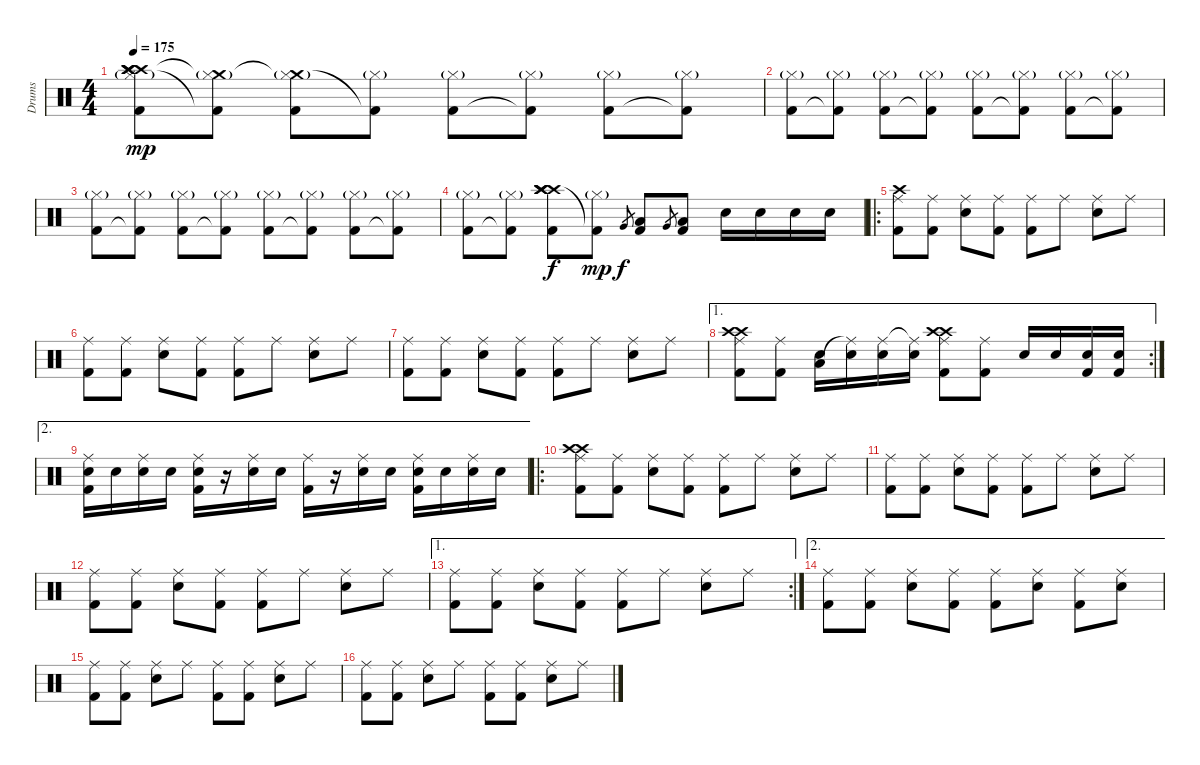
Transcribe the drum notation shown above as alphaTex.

\track ("Drums" "Drums") {instrument percussion}
\staff {score}
\articulation defaults
\ts (4 4)
\tempo 175
\clef neutral
\ks c
("Crash high (hit)" "Crash high (hit)" "Hi-Hat (closed)"{g} "Crash high (hit)" "Crash high (hit)" "Kick (hit) 2").8{dy mp} ("Crash medium (hit)"{t} "Hi-Hat (closed)"{g} "Kick (hit) 2"{t}).8 ("Crash medium (hit)"{t} "Hi-Hat (closed)"{g} "Kick (hit) 2").8 ("Hi-Hat (closed)"{g} "Kick (hit) 2"{t}).8 ("Hi-Hat (closed)"{g} "Kick (hit) 2").8 ("Hi-Hat (closed)"{g} "Kick (hit) 2"{t}).8 ("Hi-Hat (closed)"{g} "Kick (hit) 2").8 ("Hi-Hat (closed)"{g} "Kick (hit) 2"{t}).8 |
("Hi-Hat (closed)"{g} "Kick (hit) 2").8 ("Hi-Hat (closed)"{g} "Kick (hit) 2"{t}).8 ("Hi-Hat (closed)"{g} "Kick (hit) 2").8 ("Hi-Hat (closed)"{g} "Kick (hit) 2"{t}).8 ("Hi-Hat (closed)"{g} "Kick (hit) 2").8 ("Hi-Hat (closed)"{g} "Kick (hit) 2"{t}).8 ("Hi-Hat (closed)"{g} "Kick (hit) 2").8 ("Hi-Hat (closed)"{g} "Kick (hit) 2"{t}).8 |
("Hi-Hat (closed)"{g} "Kick (hit) 2").8 ("Hi-Hat (closed)"{g} "Kick (hit) 2"{t}).8 ("Hi-Hat (closed)"{g} "Kick (hit) 2").8 ("Hi-Hat (closed)"{g} "Kick (hit) 2"{t}).8 ("Hi-Hat (closed)"{g} "Kick (hit) 2").8 ("Hi-Hat (closed)"{g} "Kick (hit) 2"{t}).8 ("Hi-Hat (closed)"{g} "Kick (hit) 2").8 ("Hi-Hat (closed)"{g} "Kick (hit) 2"{t}).8 |
("Hi-Hat (closed)"{g} "Kick (hit) 2").8 ("Hi-Hat (closed)"{g} "Kick (hit) 2"{t}).8 ("Crash high (hit)" "Crash high (hit)" "Crash high (hit)" "Crash high (hit)" "Kick (hit) 2").8{dy f} ("Hi-Hat (closed)"{g} "Kick (hit) 2"{t}).8{dy mp} "Very Low Tom (hit)".8{gr dy f} ("Low Tom (hit)" "Kick (hit) 2").8 "Very Low Tom (hit)".8{gr} ("Low Tom (hit)" "Kick (hit) 2").8 "Snare (hit) 2".16 "Snare (hit) 2".16 "Snare (hit) 2".16 "Snare (hit) 2".16 |
\ro
("Crash high (hit)" "Ride (middle)" "Kick (hit) 2").8 ("Ride (middle)" "Kick (hit) 2").8 ("Ride (middle)" "Snare (hit) 2").8 ("Ride (middle)" "Kick (hit) 2").8 ("Ride (middle)" "Kick (hit) 2").8 "Ride (middle)".8 ("Ride (middle)" "Snare (hit) 2").8 "Ride (middle)".8 |
("Ride (middle)" "Kick (hit) 2").8 ("Ride (middle)" "Kick (hit) 2").8 ("Ride (middle)" "Snare (hit) 2").8 ("Ride (middle)" "Kick (hit) 2").8 ("Ride (middle)" "Kick (hit) 2").8 "Ride (middle)".8 ("Ride (middle)" "Snare (hit) 2").8 "Ride (middle)".8 |
("Ride (middle)" "Kick (hit) 2").8 ("Ride (middle)" "Kick (hit) 2").8 ("Ride (middle)" "Snare (hit) 2").8 ("Ride (middle)" "Kick (hit) 2").8 ("Ride (middle)" "Kick (hit) 2").8 "Ride (middle)".8 ("Ride (middle)" "Snare (hit) 2").8 "Ride (middle)".8 |
\ae 1
\rc 2
("Crash high (hit)" "Crash high (hit)" "Ride (middle)" "Kick (hit) 2").8 ("Ride (middle)" "Kick (hit) 2").8 ("Low Tom (hit)" "Snare (hit) 2").16 ("Ride (middle)"{t} "Snare (hit) 2").16 ("Ride (middle)" "Snare (hit) 2").16 ("Ride (middle)"{t} "Snare (hit) 2").16 ("Crash high (hit)" "Crash high (hit)" "Ride (middle)" "Kick (hit) 2").8 ("Ride (middle)" "Kick (hit) 2").8 "Snare (hit) 2".16 "Snare (hit) 2".16 ("Snare (hit) 2" "Kick (hit) 2").16 ("Snare (hit) 2" "Kick (hit) 2").16 |
\ae 2
("Ride (middle)" "Kick (hit) 2" "Snare (hit) 2").16 "Snare (hit) 2".16 ("Ride (middle)" "Snare (hit) 2").16 "Snare (hit) 2".16 ("Ride (middle)" "Kick (hit) 2" "Snare (hit) 2").16 r.16 ("Ride (middle)" "Snare (hit) 2").16 "Snare (hit) 2".16 ("Ride (middle)" "Kick (hit) 2").16 r.16 ("Ride (middle)" "Snare (hit) 2").16 "Snare (hit) 2".16 ("Ride (middle)" "Kick (hit) 2" "Snare (hit) 2").16 "Snare (hit) 2".16 ("Ride (middle)" "Snare (hit) 2").16 "Snare (hit) 2".16 |
\ro
("Crash high (hit)" "Crash high (hit)" "Ride (middle)" "Kick (hit) 2").8 ("Ride (middle)" "Kick (hit) 2").8 ("Ride (middle)" "Snare (hit) 2").8 ("Ride (middle)" "Kick (hit) 2").8 ("Ride (middle)" "Kick (hit) 2").8 "Ride (middle)".8 ("Ride (middle)" "Snare (hit) 2").8 "Ride (middle)".8 |
("Ride (middle)" "Kick (hit) 2").8 ("Ride (middle)" "Kick (hit) 2").8 ("Ride (middle)" "Snare (hit) 2").8 ("Ride (middle)" "Kick (hit) 2").8 ("Ride (middle)" "Kick (hit) 2").8 "Ride (middle)".8 ("Ride (middle)" "Snare (hit) 2").8 "Ride (middle)".8 |
("Ride (middle)" "Kick (hit) 2").8 ("Ride (middle)" "Kick (hit) 2").8 ("Ride (middle)" "Snare (hit) 2").8 ("Ride (middle)" "Kick (hit) 2").8 ("Ride (middle)" "Kick (hit) 2").8 "Ride (middle)".8 ("Ride (middle)" "Snare (hit) 2").8 "Ride (middle)".8 |
\ae 1
\rc 2
("Ride (middle)" "Kick (hit) 2").8 ("Ride (middle)" "Kick (hit) 2").8 ("Ride (middle)" "Snare (hit) 2").8 ("Ride (middle)" "Kick (hit) 2").8 ("Ride (middle)" "Kick (hit) 2").8 "Ride (middle)".8 ("Ride (middle)" "Snare (hit) 2").8 "Ride (middle)".8 |
\ae 2
("Ride (middle)" "Kick (hit) 2").8 ("Ride (middle)" "Kick (hit) 2").8 ("Ride (middle)" "Snare (hit) 2").8 ("Ride (middle)" "Kick (hit) 2").8 ("Ride (middle)" "Kick (hit) 2").8 ("Ride (middle)" "Snare (hit) 2").8 ("Ride (middle)" "Kick (hit) 2").8 ("Ride (middle)" "Snare (hit) 2").8 |
("Ride (middle)" "Kick (hit) 2").8 ("Ride (middle)" "Kick (hit) 2").8 ("Ride (middle)" "Snare (hit) 2").8 "Ride (middle)".8 ("Ride (middle)" "Kick (hit) 2").8 ("Ride (middle)" "Kick (hit) 2").8 ("Ride (middle)" "Snare (hit) 2").8 "Ride (middle)".8 |
("Ride (middle)" "Kick (hit) 2").8 ("Ride (middle)" "Kick (hit) 2").8 ("Ride (middle)" "Snare (hit) 2").8 "Ride (middle)".8 ("Ride (middle)" "Kick (hit) 2").8 ("Ride (middle)" "Kick (hit) 2").8 ("Ride (middle)" "Snare (hit) 2").8 "Ride (middle)".8
